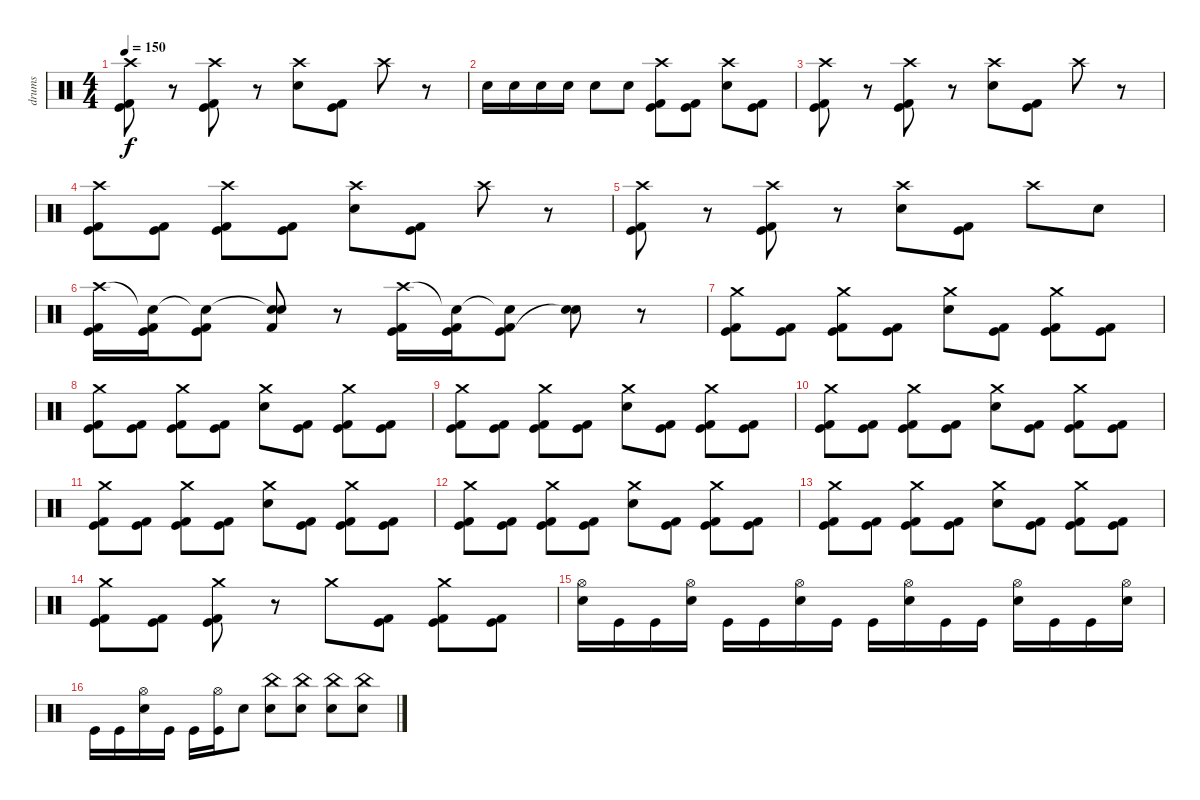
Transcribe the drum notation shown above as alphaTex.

\track ("drums" "drums") {instrument percussion}
\staff {score}
\articulation defaults
\ts (4 4)
\tempo 150
\clef neutral
\ks c
("Kick (hit)" "Kick (hit) 2" "Crash high (hit)").8{dy f} r.8 ("Kick (hit)" "Kick (hit) 2" "Crash high (hit)").8 r.8 ("Electric Snare (hit)" "Crash high (hit)").8 ("Kick (hit)" "Kick (hit) 2").8 "Crash high (hit)".8 r.8 |
"Electric Snare (hit)".16 "Electric Snare (hit)".16 "Electric Snare (hit)".16 "Electric Snare (hit)".16 "Electric Snare (hit)".8 "Electric Snare (hit)".8 ("Kick (hit)" "Kick (hit) 2" "Crash high (hit)").8 ("Kick (hit)" "Kick (hit) 2").8 ("Electric Snare (hit)" "Crash high (hit)").8 ("Kick (hit)" "Kick (hit) 2").8 |
("Kick (hit)" "Kick (hit) 2" "Crash high (hit)").8 r.8 ("Kick (hit)" "Kick (hit) 2" "Crash high (hit)").8 r.8 ("Electric Snare (hit)" "Crash high (hit)").8 ("Kick (hit)" "Kick (hit) 2").8 "Crash high (hit)".8 r.8 |
("Kick (hit)" "Kick (hit) 2" "Crash high (hit)").8 ("Kick (hit)" "Kick (hit) 2").8 ("Kick (hit)" "Kick (hit) 2" "Crash high (hit)").8 ("Kick (hit)" "Kick (hit) 2").8 ("Electric Snare (hit)" "Crash high (hit)").8 ("Kick (hit)" "Kick (hit) 2").8 "Crash high (hit)".8 r.8 |
("Kick (hit)" "Kick (hit) 2" "Crash high (hit)").8 r.8 ("Kick (hit)" "Kick (hit) 2" "Crash high (hit)").8 r.8 ("Electric Snare (hit)" "Crash high (hit)").8 ("Kick (hit)" "Kick (hit) 2").8 "Crash high (hit)".8 "Electric Snare (hit)".8 |
("Kick (hit)" "Kick (hit) 2" "Crash high (hit)").16 ("Kick (hit)" "Kick (hit) 2" "Snare (hit)"{t}).16 ("Kick (hit)" "Kick (hit) 2" "Snare (hit)"{t}).8 ("Electric Snare (hit)" "Kick (hit) 2" "Snare (hit)"{t}).8 r.8 ("Kick (hit) 2" "Kick (hit)" "Crash high (hit)").16 ("Kick (hit) 2" "Kick (hit)" "Snare (hit)"{t}).16 ("Kick (hit) 2" "Kick (hit)" "Snare (hit)"{t}).8 ("Electric Snare (hit)" "Snare (hit)"{t}).8 r.8 |
("Kick (hit)" "Kick (hit) 2" "Crash medium (hit)").8 ("Kick (hit)" "Kick (hit) 2").8 ("Kick (hit)" "Kick (hit) 2" "Crash medium (hit)").8 ("Kick (hit)" "Kick (hit) 2").8 ("Electric Snare (hit)" "Crash medium (hit)").8 ("Kick (hit)" "Kick (hit) 2").8 ("Kick (hit)" "Kick (hit) 2" "Crash medium (hit)").8 ("Kick (hit)" "Kick (hit) 2").8 |
("Kick (hit)" "Kick (hit) 2" "Crash medium (hit)").8 ("Kick (hit)" "Kick (hit) 2").8 ("Kick (hit)" "Kick (hit) 2" "Crash medium (hit)").8 ("Kick (hit)" "Kick (hit) 2").8 ("Electric Snare (hit)" "Crash medium (hit)").8 ("Kick (hit)" "Kick (hit) 2").8 ("Kick (hit)" "Kick (hit) 2" "Crash medium (hit)").8 ("Kick (hit)" "Kick (hit) 2").8 |
("Kick (hit)" "Kick (hit) 2" "Crash medium (hit)").8 ("Kick (hit)" "Kick (hit) 2").8 ("Kick (hit)" "Kick (hit) 2" "Crash medium (hit)").8 ("Kick (hit)" "Kick (hit) 2").8 ("Electric Snare (hit)" "Crash medium (hit)").8 ("Kick (hit)" "Kick (hit) 2").8 ("Kick (hit)" "Kick (hit) 2" "Crash medium (hit)").8 ("Kick (hit)" "Kick (hit) 2").8 |
("Kick (hit)" "Kick (hit) 2" "Crash medium (hit)").8 ("Kick (hit)" "Kick (hit) 2").8 ("Kick (hit)" "Kick (hit) 2" "Crash medium (hit)").8 ("Kick (hit)" "Kick (hit) 2").8 ("Electric Snare (hit)" "Crash medium (hit)").8 ("Kick (hit)" "Kick (hit) 2").8 ("Kick (hit)" "Kick (hit) 2" "Crash medium (hit)").8 ("Kick (hit)" "Kick (hit) 2").8 |
("Kick (hit)" "Kick (hit) 2" "Crash medium (hit)").8 ("Kick (hit)" "Kick (hit) 2").8 ("Kick (hit)" "Kick (hit) 2" "Crash medium (hit)").8 ("Kick (hit)" "Kick (hit) 2").8 ("Electric Snare (hit)" "Crash medium (hit)").8 ("Kick (hit)" "Kick (hit) 2").8 ("Kick (hit)" "Kick (hit) 2" "Crash medium (hit)").8 ("Kick (hit)" "Kick (hit) 2").8 |
("Kick (hit)" "Kick (hit) 2" "Crash medium (hit)").8 ("Kick (hit)" "Kick (hit) 2").8 ("Kick (hit)" "Kick (hit) 2" "Crash medium (hit)").8 ("Kick (hit)" "Kick (hit) 2").8 ("Electric Snare (hit)" "Crash medium (hit)").8 ("Kick (hit)" "Kick (hit) 2").8 ("Kick (hit)" "Kick (hit) 2" "Crash medium (hit)").8 ("Kick (hit)" "Kick (hit) 2").8 |
("Kick (hit)" "Kick (hit) 2" "Crash medium (hit)").8 ("Kick (hit)" "Kick (hit) 2").8 ("Kick (hit)" "Kick (hit) 2" "Crash medium (hit)").8 ("Kick (hit)" "Kick (hit) 2").8 ("Electric Snare (hit)" "Crash medium (hit)").8 ("Kick (hit)" "Kick (hit) 2").8 ("Kick (hit)" "Kick (hit) 2" "Crash medium (hit)").8 ("Kick (hit)" "Kick (hit) 2").8 |
("Kick (hit)" "Kick (hit) 2" "Crash medium (hit)").8 ("Kick (hit) 2" "Kick (hit)").8 ("Kick (hit)" "Kick (hit) 2" "Crash medium (hit)").8 r.8 "Crash medium (hit)".8 ("Kick (hit)" "Kick (hit) 2").8 ("Kick (hit)" "Kick (hit) 2" "Crash medium (hit)").8 ("Kick (hit)" "Kick (hit) 2").8 |
("Electric Snare (hit)" "Hi-Hat (open)").16 "Kick (hit)".16 "Kick (hit)".16 ("Electric Snare (hit)" "Hi-Hat (open)").16 "Kick (hit)".16 "Kick (hit)".16 ("Electric Snare (hit)" "Hi-Hat (open)").16 "Kick (hit)".16 "Kick (hit)".16 ("Electric Snare (hit)" "Hi-Hat (open)").16 "Kick (hit)".16 "Kick (hit)".16 ("Electric Snare (hit)" "Hi-Hat (open)").16 "Kick (hit)".16 "Kick (hit)".16 ("Electric Snare (hit)" "Hi-Hat (open)").16 |
"Kick (hit)".16 "Kick (hit)".16 ("Electric Snare (hit)" "Hi-Hat (open)").16 "Kick (hit)".16 "Kick (hit)".16 ("Kick (hit)" "Hi-Hat (open)").16 "Electric Snare (hit)".8 ("Electric Snare (hit)" "China (hit)").8 ("Electric Snare (hit)" "China (hit)").8 ("Electric Snare (hit)" "China (hit)").8 ("Electric Snare (hit)" "China (hit)").8
